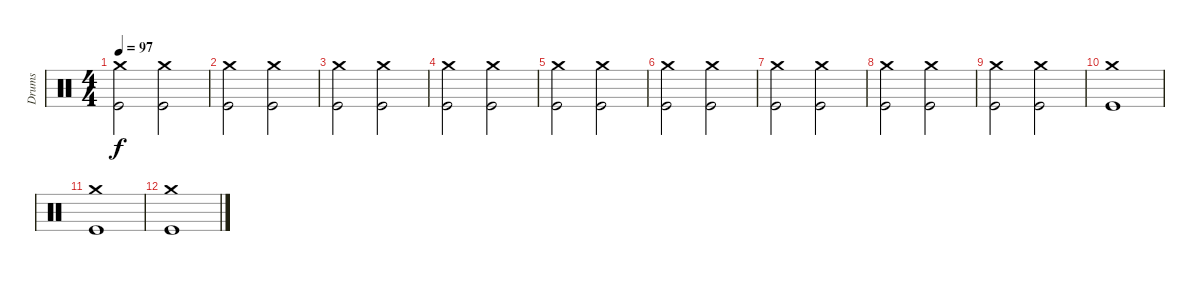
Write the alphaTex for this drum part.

\track ("Drums " "Drums ") {instrument percussion}
\staff {score}
\articulation defaults
\ts (4 4)
\tempo 97
\clef neutral
\ks c
("Crash medium (hit)" "Kick (hit)").2{dy f} ("Crash medium (hit)" "Kick (hit)").2 |
("Crash medium (hit)" "Kick (hit)").2 ("Crash medium (hit)" "Kick (hit)").2 |
("Crash medium (hit)" "Kick (hit)").2 ("Crash medium (hit)" "Kick (hit)").2 |
("Crash medium (hit)" "Kick (hit)").2 ("Crash medium (hit)" "Kick (hit)").2 |
("Crash medium (hit)" "Kick (hit)").2 ("Crash medium (hit)" "Kick (hit)").2 |
("Crash medium (hit)" "Kick (hit)").2 ("Crash medium (hit)" "Kick (hit)").2 |
("Crash medium (hit)" "Kick (hit)").2 ("Crash medium (hit)" "Kick (hit)").2 |
("Crash medium (hit)" "Kick (hit)").2 ("Crash medium (hit)" "Kick (hit)").2 |
("Crash medium (hit)" "Kick (hit)").2 ("Crash medium (hit)" "Kick (hit)").2 |
("Crash medium (hit)" "Kick (hit)").1 |
("Crash medium (hit)" "Kick (hit)").1 |
("Crash medium (hit)" "Kick (hit)").1
